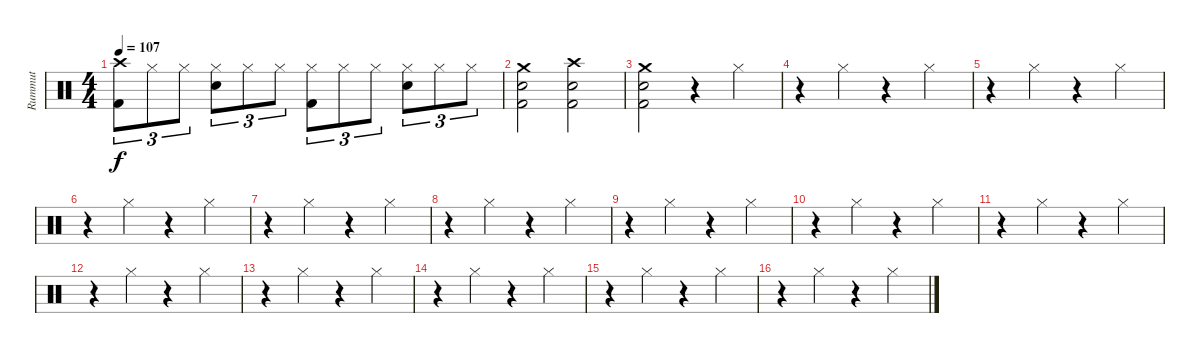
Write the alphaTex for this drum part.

\track ("Rummut" "Rummut") {instrument percussion}
\staff {score}
\articulation defaults
\ts (4 4)
\tempo 107
\clef neutral
\ks c
("Crash high (hit)" "Kick (hit) 2").8{tu (3 2) dy f} "Hi-Hat (closed)".8{tu (3 2)} "Hi-Hat (closed)".8{tu (3 2)} ("Hi-Hat (closed)" "Snare (hit) 2").8{tu (3 2)} "Hi-Hat (closed)".8{tu (3 2)} "Hi-Hat (closed)".8{tu (3 2)} ("Hi-Hat (closed)" "Kick (hit) 2").8{tu (3 2)} "Hi-Hat (closed)".8{tu (3 2)} "Hi-Hat (closed)".8{tu (3 2)} ("Hi-Hat (closed)" "Snare (hit) 2").8{tu (3 2)} "Hi-Hat (closed)".8{tu (3 2)} "Hi-Hat (closed)".8{tu (3 2)} |
("Crash medium (hit)" "Snare (hit) 2" "Kick (hit) 2").2 ("Crash high (hit)" "Snare (hit) 2" "Kick (hit) 2").2 |
("Crash medium (hit)" "Snare (hit) 2" "Kick (hit) 2").2 r.4 "Hi-Hat (closed)".4{volume 8} |
r.4 "Hi-Hat (closed)".4 r.4 "Hi-Hat (closed)".4 |
r.4 "Hi-Hat (closed)".4 r.4 "Hi-Hat (closed)".4 |
r.4 "Hi-Hat (closed)".4 r.4 "Hi-Hat (closed)".4 |
r.4 "Hi-Hat (closed)".4 r.4 "Hi-Hat (closed)".4 |
r.4 "Hi-Hat (closed)".4 r.4 "Hi-Hat (closed)".4 |
r.4 "Hi-Hat (closed)".4 r.4 "Hi-Hat (closed)".4 |
r.4 "Hi-Hat (closed)".4 r.4 "Hi-Hat (closed)".4 |
r.4 "Hi-Hat (closed)".4 r.4 "Hi-Hat (closed)".4 |
r.4 "Hi-Hat (closed)".4 r.4 "Hi-Hat (closed)".4 |
r.4 "Hi-Hat (closed)".4 r.4 "Hi-Hat (closed)".4 |
r.4 "Hi-Hat (closed)".4 r.4 "Hi-Hat (closed)".4 |
r.4 "Hi-Hat (closed)".4 r.4 "Hi-Hat (closed)".4 |
r.4 "Hi-Hat (closed)".4 r.4 "Hi-Hat (closed)".4
